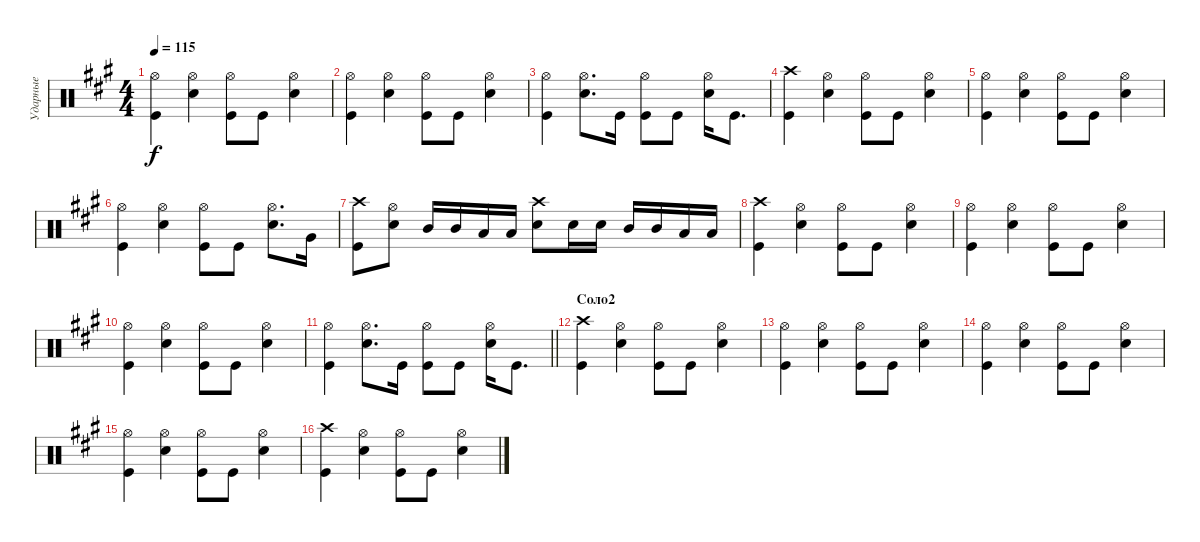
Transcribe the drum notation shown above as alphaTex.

\track ("Ударные" "Ударные") {instrument percussion}
\staff {score}
\articulation defaults
\ts (4 4)
\tempo 115
\clef neutral
\ks a
("Hi-Hat (open)" "Kick (hit)").4{dy f} ("Hi-Hat (open)" "Snare (hit) 2").4 ("Hi-Hat (open)" "Kick (hit)").8 "Kick (hit)".8 ("Hi-Hat (open)" "Snare (hit) 2").4 |
("Hi-Hat (open)" "Kick (hit)").4 ("Hi-Hat (open)" "Snare (hit) 2").4 ("Hi-Hat (open)" "Kick (hit)").8 "Kick (hit)".8 ("Hi-Hat (open)" "Snare (hit) 2").4 |
("Kick (hit)" "Hi-Hat (open)").4 ("Hi-Hat (open)" "Snare (hit) 2").8{d} "Kick (hit)".16 ("Hi-Hat (open)" "Kick (hit)").8 "Kick (hit)".8 ("Hi-Hat (open)" "Snare (hit) 2").16 "Kick (hit)".8{d} |
("Crash high (hit)" "Kick (hit)").4 ("Hi-Hat (open)" "Snare (hit) 2").4 ("Hi-Hat (open)" "Kick (hit)").8 "Kick (hit)".8 ("Hi-Hat (open)" "Snare (hit) 2").4 |
("Hi-Hat (open)" "Kick (hit)").4 ("Hi-Hat (open)" "Snare (hit) 2").4 ("Hi-Hat (open)" "Kick (hit)").8 "Kick (hit)".8 ("Hi-Hat (open)" "Snare (hit) 2").4 |
("Hi-Hat (open)" "Kick (hit)").4 ("Hi-Hat (open)" "Snare (hit) 2").4 ("Hi-Hat (open)" "Kick (hit)").8 "Kick (hit)".8 ("Hi-Hat (open)" "Snare (hit) 2").8{d} "Very Low Tom (hit)".16 |
("Kick (hit)" "Crash high (hit)").8 ("Hi-Hat (open)" "Snare (hit) 2").8 "Mid Tom (hit)".16 "Mid Tom (hit)".16 "Low Tom (hit)".16 "Low Tom (hit)".16 ("Snare (hit) 2" "Crash high (hit)").8 "Snare (hit) 2".16 "Snare (hit) 2".16 "Mid Tom (hit)".16 "Mid Tom (hit)".16 "Low Tom (hit)".16 "Low Tom (hit)".16 |
("Crash high (hit)" "Kick (hit)").4 ("Hi-Hat (open)" "Snare (hit) 2").4 ("Hi-Hat (open)" "Kick (hit)").8 "Kick (hit)".8 ("Hi-Hat (open)" "Snare (hit) 2").4 |
("Hi-Hat (open)" "Kick (hit)").4 ("Hi-Hat (open)" "Snare (hit) 2").4 ("Hi-Hat (open)" "Kick (hit)").8 "Kick (hit)".8 ("Hi-Hat (open)" "Snare (hit) 2").4 |
("Hi-Hat (open)" "Kick (hit)").4 ("Hi-Hat (open)" "Snare (hit) 2").4 ("Hi-Hat (open)" "Kick (hit)").8 "Kick (hit)".8 ("Hi-Hat (open)" "Snare (hit) 2").4 |
\barLineRight lightlight
("Kick (hit)" "Hi-Hat (open)").4 ("Hi-Hat (open)" "Snare (hit) 2").8{d} "Kick (hit)".16 ("Hi-Hat (open)" "Kick (hit)").8 "Kick (hit)".8 ("Hi-Hat (open)" "Snare (hit) 2").16 "Kick (hit)".8{d} |
\section ("" "Соло2")
("Crash high (hit)" "Kick (hit)").4 ("Hi-Hat (open)" "Snare (hit) 2").4 ("Hi-Hat (open)" "Kick (hit)").8 "Kick (hit)".8 ("Hi-Hat (open)" "Snare (hit) 2").4 |
("Hi-Hat (open)" "Kick (hit)").4 ("Hi-Hat (open)" "Snare (hit) 2").4 ("Hi-Hat (open)" "Kick (hit)").8 "Kick (hit)".8 ("Hi-Hat (open)" "Snare (hit) 2").4 |
("Hi-Hat (open)" "Kick (hit)").4 ("Hi-Hat (open)" "Snare (hit) 2").4 ("Hi-Hat (open)" "Kick (hit)").8 "Kick (hit)".8 ("Hi-Hat (open)" "Snare (hit) 2").4 |
("Kick (hit)" "Hi-Hat (open)").4 ("Hi-Hat (open)" "Snare (hit) 2").4 ("Hi-Hat (open)" "Kick (hit)").8 "Kick (hit)".8 ("Hi-Hat (open)" "Snare (hit) 2").4 |
("Kick (hit)" "Crash high (hit)").4 ("Hi-Hat (open)" "Snare (hit) 2").4 ("Hi-Hat (open)" "Kick (hit)").8 "Kick (hit)".8 ("Hi-Hat (open)" "Snare (hit) 2").4
